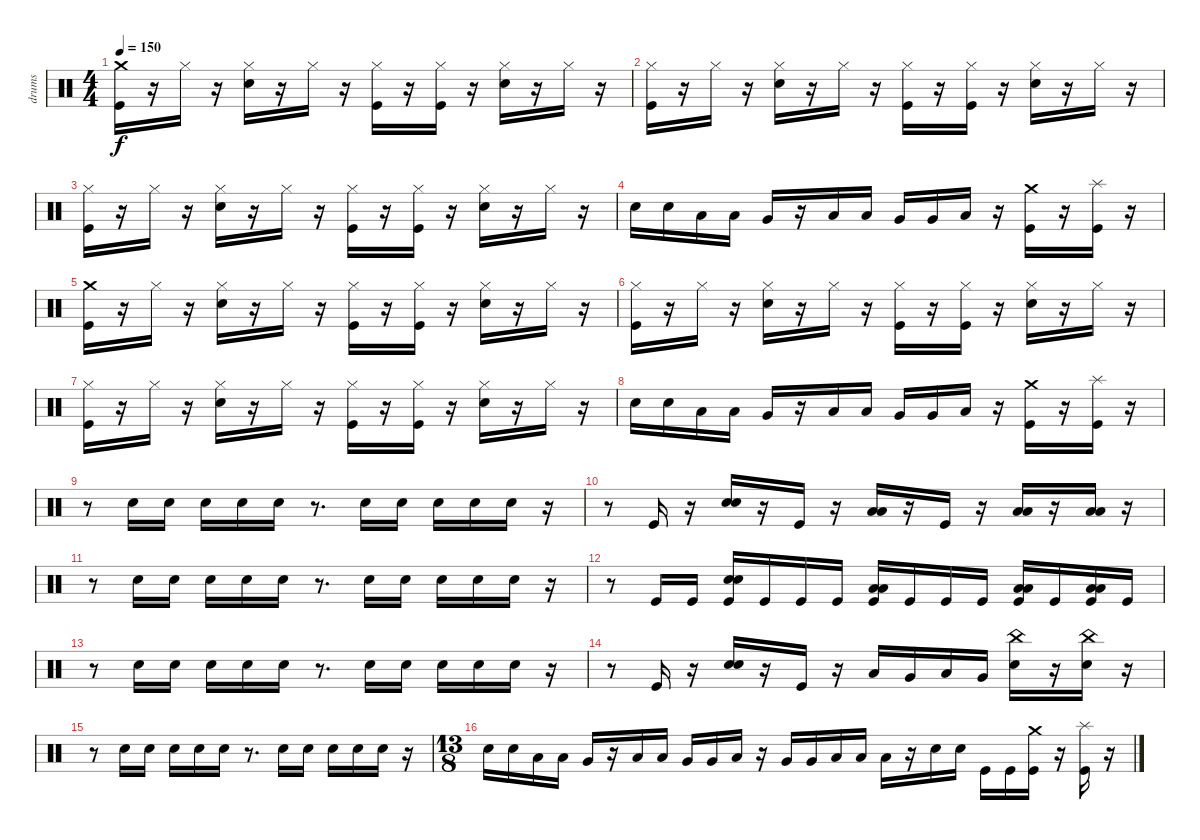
\track ("drums" "drums") {instrument percussion}
\staff {score}
\articulation defaults
\ts (4 4)
\tempo 150
\clef neutral
\ks c
("Crash medium (hit)" "Kick (hit)").16{dy f} r.16 "Hi-Hat (closed)".16 r.16 ("Hi-Hat (closed)" "Electric Snare (hit)").16 r.16 "Hi-Hat (closed)".16 r.16 ("Hi-Hat (closed)" "Kick (hit)").16 r.16 ("Hi-Hat (closed)" "Kick (hit)").16 r.16 ("Hi-Hat (closed)" "Electric Snare (hit)").16 r.16 "Hi-Hat (closed)".16 r.16 |
("Hi-Hat (closed)" "Kick (hit)").16 r.16 "Hi-Hat (closed)".16 r.16 ("Hi-Hat (closed)" "Electric Snare (hit)").16 r.16 "Hi-Hat (closed)".16 r.16 ("Hi-Hat (closed)" "Kick (hit)").16 r.16 ("Hi-Hat (closed)" "Kick (hit)").16 r.16 ("Hi-Hat (closed)" "Electric Snare (hit)").16 r.16 "Hi-Hat (closed)".16 r.16 |
("Hi-Hat (closed)" "Kick (hit)").16 r.16 "Hi-Hat (closed)".16 r.16 ("Hi-Hat (closed)" "Electric Snare (hit)").16 r.16 "Hi-Hat (closed)".16 r.16 ("Hi-Hat (closed)" "Kick (hit)").16 r.16 ("Hi-Hat (closed)" "Kick (hit)").16 r.16 ("Hi-Hat (closed)" "Electric Snare (hit)").16 r.16 "Hi-Hat (closed)".16 r.16 |
"Electric Snare (hit)".16 "Electric Snare (hit)".16 "Low Tom (hit)".16 "Low Tom (hit)".16 "Very Low Tom (hit)".16 r.16 "Low Tom (hit)".16 "Low Tom (hit)".16 "Very Low Tom (hit)".16 "Very Low Tom (hit)".16 "Low Floor Tom (hit)".16 r.16 ("Crash medium (hit)" "Kick (hit)").16 r.16 ("Splash (hit)" "Kick (hit)").16 r.16 |
("Crash medium (hit)" "Kick (hit)").16 r.16 "Hi-Hat (closed)".16 r.16 ("Hi-Hat (closed)" "Electric Snare (hit)").16 r.16 "Hi-Hat (closed)".16 r.16 ("Hi-Hat (closed)" "Kick (hit)").16 r.16 ("Hi-Hat (closed)" "Kick (hit)").16 r.16 ("Hi-Hat (closed)" "Electric Snare (hit)").16 r.16 "Hi-Hat (closed)".16 r.16 |
("Hi-Hat (closed)" "Kick (hit)").16 r.16 "Hi-Hat (closed)".16 r.16 ("Hi-Hat (closed)" "Electric Snare (hit)").16 r.16 "Hi-Hat (closed)".16 r.16 ("Hi-Hat (closed)" "Kick (hit)").16 r.16 ("Hi-Hat (closed)" "Kick (hit)").16 r.16 ("Hi-Hat (closed)" "Electric Snare (hit)").16 r.16 "Hi-Hat (closed)".16 r.16 |
("Hi-Hat (closed)" "Kick (hit)").16 r.16 "Hi-Hat (closed)".16 r.16 ("Hi-Hat (closed)" "Electric Snare (hit)").16 r.16 "Hi-Hat (closed)".16 r.16 ("Hi-Hat (closed)" "Kick (hit)").16 r.16 ("Hi-Hat (closed)" "Kick (hit)").16 r.16 ("Hi-Hat (closed)" "Electric Snare (hit)").16 r.16 "Hi-Hat (closed)".16 r.16 |
"Electric Snare (hit)".16 "Electric Snare (hit)".16 "Low Tom (hit)".16 "Low Tom (hit)".16 "Very Low Tom (hit)".16 r.16 "Low Tom (hit)".16 "Low Tom (hit)".16 "Very Low Tom (hit)".16 "Very Low Tom (hit)".16 "Low Floor Tom (hit)".16 r.16 ("Crash medium (hit)" "Kick (hit)").16 r.16 ("Splash (hit)" "Kick (hit)").16 r.16 |
r.8 "Electric Snare (hit)".16 "Electric Snare (hit)".16 "Electric Snare (hit)".16 "Electric Snare (hit)".16 "Electric Snare (hit)".16 r.8{d} "Electric Snare (hit)".16 "Electric Snare (hit)".16 "Electric Snare (hit)".16 "Electric Snare (hit)".16 "Electric Snare (hit)".16 r.16 |
r.8 "Kick (hit)".16 r.16 ("Electric Snare (hit)" "Electric Snare (hit)").16 r.16 "Kick (hit)".16 r.16 ("Low Tom (hit)" "Low Tom (hit)").16 r.16 "Kick (hit)".16 r.16 ("Low Floor Tom (hit)" "Low Floor Tom (hit)").16 r.16 ("Low Floor Tom (hit)" "Low Floor Tom (hit)").16 r.16 |
r.8 "Electric Snare (hit)".16 "Electric Snare (hit)".16 "Electric Snare (hit)".16 "Electric Snare (hit)".16 "Electric Snare (hit)".16 r.8{d} "Electric Snare (hit)".16 "Electric Snare (hit)".16 "Electric Snare (hit)".16 "Electric Snare (hit)".16 "Electric Snare (hit)".16 r.16 |
r.8 "Kick (hit)".16 "Kick (hit)".16 ("Snare (hit) 2" "Kick (hit)" "Electric Snare (hit)").16 "Kick (hit)".16 "Kick (hit)".16 "Kick (hit)".16 ("Kick (hit)" "Low Tom (hit)" "Low Tom (hit)").16 "Kick (hit)".16 "Kick (hit)".16 "Kick (hit)".16 ("Kick (hit)" "Low Floor Tom (hit)" "Low Floor Tom (hit)").16 "Kick (hit)".16 ("Kick (hit)" "Low Floor Tom (hit)" "Low Floor Tom (hit)").16 "Kick (hit)".16 |
r.8 "Electric Snare (hit)".16 "Electric Snare (hit)".16 "Electric Snare (hit)".16 "Electric Snare (hit)".16 "Electric Snare (hit)".16 r.8{d} "Electric Snare (hit)".16 "Electric Snare (hit)".16 "Electric Snare (hit)".16 "Electric Snare (hit)".16 "Electric Snare (hit)".16 r.16 |
r.8 "Kick (hit)".16 r.16 ("Electric Snare (hit)" "Electric Snare (hit)").16 r.16 "Kick (hit)".16 r.16 "Low Tom (hit)".16 "Very Low Tom (hit)".16 "Low Floor Tom (hit)".16 "Very Low Tom (hit)".16 ("China (hit)" "Electric Snare (hit)").16 r.16 ("China (hit)" "Electric Snare (hit)").16 r.16 |
r.8 "Electric Snare (hit)".16 "Electric Snare (hit)".16 "Electric Snare (hit)".16 "Electric Snare (hit)".16 "Electric Snare (hit)".16 r.8{d} "Electric Snare (hit)".16 "Electric Snare (hit)".16 "Electric Snare (hit)".16 "Electric Snare (hit)".16 "Electric Snare (hit)".16 r.16 |
\ts (13 8)
"Electric Snare (hit)".16 "Electric Snare (hit)".16 "Low Tom (hit)".16 "Low Tom (hit)".16 "Very Low Tom (hit)".16 r.16 "Low Tom (hit)".16 "Low Tom (hit)".16 "Very Low Tom (hit)".16 "Very Low Tom (hit)".16 "Low Floor Tom (hit)".16 r.16 "Very Low Tom (hit)".16 "Very Low Tom (hit)".16 "Low Floor Tom (hit)".16 "Low Floor Tom (hit)".16 "Low Floor Tom (hit)".16 r.16 "Electric Snare (hit)".16 "Electric Snare (hit)".16 "Kick (hit)".16 "Kick (hit)".16 ("Crash medium (hit)" "Kick (hit)").16 r.16 ("Splash (hit)" "Kick (hit)").16 r.16
